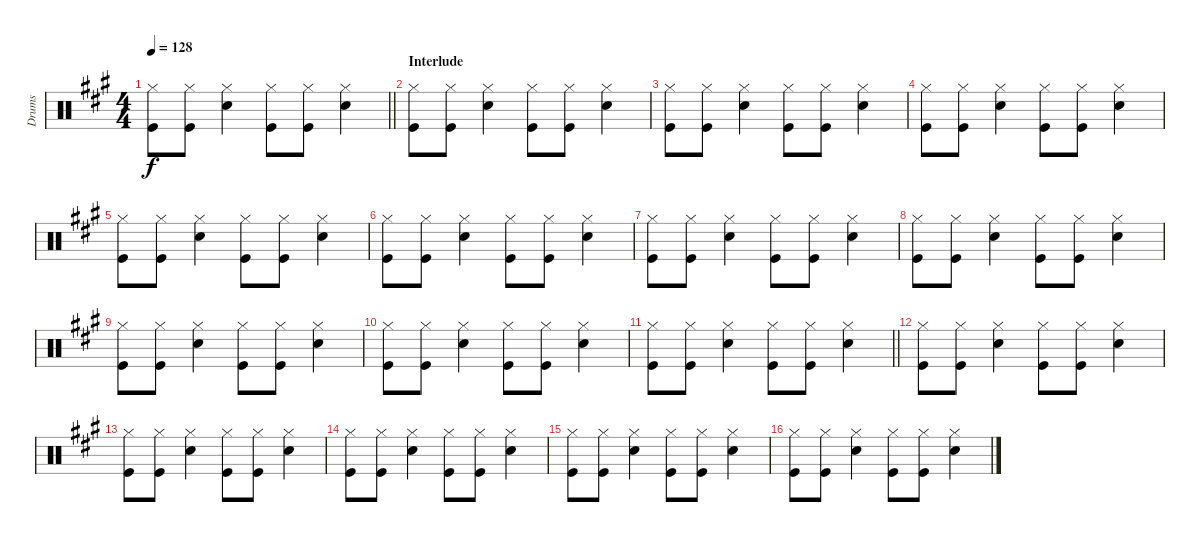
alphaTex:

\track ("Drums" "Drums") {instrument percussion}
\staff
\articulation defaults
\ts (4 4)
\tempo 128
\clef neutral
\barLineRight lightlight
\ks a
("Hi-Hat (closed)" "Kick (hit)").8{dy f} ("Hi-Hat (closed)" "Kick (hit)").8 ("Hi-Hat (closed)" "Snare (hit) 2").4 ("Hi-Hat (closed)" "Kick (hit)").8 ("Hi-Hat (closed)" "Kick (hit)").8 ("Hi-Hat (closed)" "Snare (hit) 2").4 |
\section ("" "Interlude")
("Hi-Hat (closed)" "Kick (hit)").8 ("Hi-Hat (closed)" "Kick (hit)").8 ("Hi-Hat (closed)" "Snare (hit) 2").4 ("Hi-Hat (closed)" "Kick (hit)").8 ("Hi-Hat (closed)" "Kick (hit)").8 ("Hi-Hat (closed)" "Snare (hit) 2").4 |
("Hi-Hat (closed)" "Kick (hit)").8 ("Hi-Hat (closed)" "Kick (hit)").8 ("Hi-Hat (closed)" "Snare (hit) 2").4 ("Hi-Hat (closed)" "Kick (hit)").8 ("Hi-Hat (closed)" "Kick (hit)").8 ("Hi-Hat (closed)" "Snare (hit) 2").4 |
("Hi-Hat (closed)" "Kick (hit)").8 ("Hi-Hat (closed)" "Kick (hit)").8 ("Hi-Hat (closed)" "Snare (hit) 2").4 ("Hi-Hat (closed)" "Kick (hit)").8 ("Hi-Hat (closed)" "Kick (hit)").8 ("Hi-Hat (closed)" "Snare (hit) 2").4 |
("Hi-Hat (closed)" "Kick (hit)").8 ("Hi-Hat (closed)" "Kick (hit)").8 ("Hi-Hat (closed)" "Snare (hit) 2").4 ("Hi-Hat (closed)" "Kick (hit)").8 ("Hi-Hat (closed)" "Kick (hit)").8 ("Hi-Hat (closed)" "Snare (hit) 2").4 |
("Hi-Hat (closed)" "Kick (hit)").8 ("Hi-Hat (closed)" "Kick (hit)").8 ("Hi-Hat (closed)" "Snare (hit) 2").4 ("Hi-Hat (closed)" "Kick (hit)").8 ("Hi-Hat (closed)" "Kick (hit)").8 ("Hi-Hat (closed)" "Snare (hit) 2").4 |
("Hi-Hat (closed)" "Kick (hit)").8 ("Hi-Hat (closed)" "Kick (hit)").8 ("Hi-Hat (closed)" "Snare (hit) 2").4 ("Hi-Hat (closed)" "Kick (hit)").8 ("Hi-Hat (closed)" "Kick (hit)").8 ("Hi-Hat (closed)" "Snare (hit) 2").4 |
("Hi-Hat (closed)" "Kick (hit)").8 ("Hi-Hat (closed)" "Kick (hit)").8 ("Hi-Hat (closed)" "Snare (hit) 2").4 ("Hi-Hat (closed)" "Kick (hit)").8 ("Hi-Hat (closed)" "Kick (hit)").8 ("Hi-Hat (closed)" "Snare (hit) 2").4 |
("Hi-Hat (closed)" "Kick (hit)").8 ("Hi-Hat (closed)" "Kick (hit)").8 ("Hi-Hat (closed)" "Snare (hit) 2").4 ("Hi-Hat (closed)" "Kick (hit)").8 ("Hi-Hat (closed)" "Kick (hit)").8 ("Hi-Hat (closed)" "Snare (hit) 2").4 |
("Hi-Hat (closed)" "Kick (hit)").8 ("Hi-Hat (closed)" "Kick (hit)").8 ("Hi-Hat (closed)" "Snare (hit) 2").4 ("Hi-Hat (closed)" "Kick (hit)").8 ("Hi-Hat (closed)" "Kick (hit)").8 ("Hi-Hat (closed)" "Snare (hit) 2").4 |
\barLineRight lightlight
("Hi-Hat (closed)" "Kick (hit)").8 ("Hi-Hat (closed)" "Kick (hit)").8 ("Hi-Hat (closed)" "Snare (hit) 2").4 ("Hi-Hat (closed)" "Kick (hit)").8 ("Hi-Hat (closed)" "Kick (hit)").8 ("Hi-Hat (closed)" "Snare (hit) 2").4 |
("Hi-Hat (closed)" "Kick (hit)").8 ("Hi-Hat (closed)" "Kick (hit)").8 ("Hi-Hat (closed)" "Snare (hit) 2").4 ("Hi-Hat (closed)" "Kick (hit)").8 ("Hi-Hat (closed)" "Kick (hit)").8 ("Hi-Hat (closed)" "Snare (hit) 2").4 |
("Hi-Hat (closed)" "Kick (hit)").8 ("Hi-Hat (closed)" "Kick (hit)").8 ("Hi-Hat (closed)" "Snare (hit) 2").4 ("Hi-Hat (closed)" "Kick (hit)").8 ("Hi-Hat (closed)" "Kick (hit)").8 ("Hi-Hat (closed)" "Snare (hit) 2").4 |
("Hi-Hat (closed)" "Kick (hit)").8 ("Hi-Hat (closed)" "Kick (hit)").8 ("Hi-Hat (closed)" "Snare (hit) 2").4 ("Hi-Hat (closed)" "Kick (hit)").8 ("Hi-Hat (closed)" "Kick (hit)").8 ("Hi-Hat (closed)" "Snare (hit) 2").4 |
("Hi-Hat (closed)" "Kick (hit)").8 ("Hi-Hat (closed)" "Kick (hit)").8 ("Hi-Hat (closed)" "Snare (hit) 2").4 ("Hi-Hat (closed)" "Kick (hit)").8 ("Hi-Hat (closed)" "Kick (hit)").8 ("Hi-Hat (closed)" "Snare (hit) 2").4 |
("Hi-Hat (closed)" "Kick (hit)").8 ("Hi-Hat (closed)" "Kick (hit)").8 ("Hi-Hat (closed)" "Snare (hit) 2").4 ("Hi-Hat (closed)" "Kick (hit)").8 ("Hi-Hat (closed)" "Kick (hit)").8 ("Hi-Hat (closed)" "Snare (hit) 2").4
